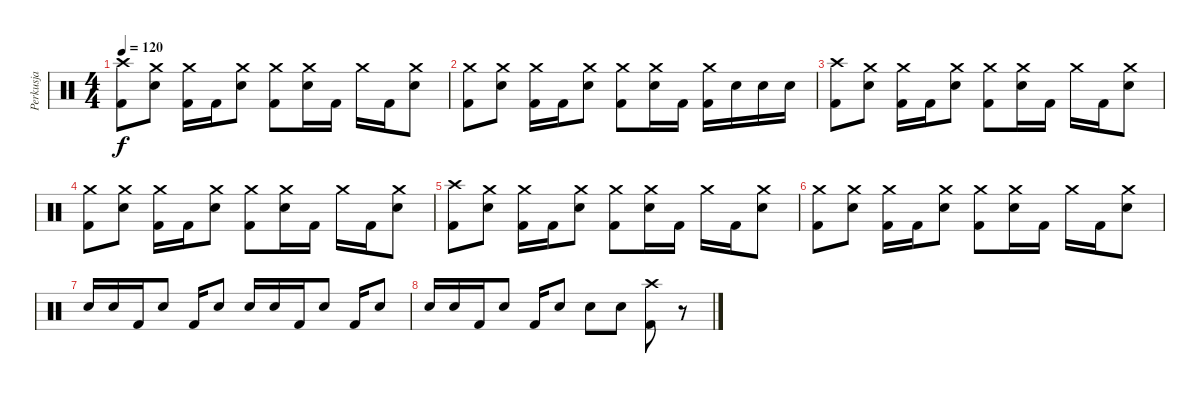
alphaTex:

\track ("Perkusja" "Perkusja") {instrument percussion}
\staff {score}
\articulation defaults
\ts (4 4)
\tempo 120
\clef neutral
\ks c
("Crash high (hit)" "Kick (hit) 2").8{dy f} ("Crash medium (hit)" "Snare (hit) 2").8 ("Crash medium (hit)" "Kick (hit) 2").16 "Kick (hit) 2".16 ("Crash medium (hit)" "Snare (hit) 2").8 ("Crash medium (hit)" "Kick (hit) 2").8 ("Crash medium (hit)" "Snare (hit) 2").16 "Kick (hit) 2".16 "Crash medium (hit)".16 "Kick (hit) 2".16 ("Crash medium (hit)" "Snare (hit) 2").8 |
("Crash medium (hit)" "Kick (hit) 2").8 ("Crash medium (hit)" "Snare (hit) 2").8 ("Crash medium (hit)" "Kick (hit) 2").16 "Kick (hit) 2".16 ("Crash medium (hit)" "Snare (hit) 2").8 ("Crash medium (hit)" "Kick (hit) 2").8 ("Crash medium (hit)" "Snare (hit) 2").16 "Kick (hit) 2".16 ("Crash medium (hit)" "Kick (hit) 2").16 "Snare (hit) 2".16 "Snare (hit) 2".16 "Snare (hit) 2".16 |
("Crash high (hit)" "Kick (hit) 2").8 ("Crash medium (hit)" "Snare (hit) 2").8 ("Crash medium (hit)" "Kick (hit) 2").16 "Kick (hit) 2".16 ("Crash medium (hit)" "Snare (hit) 2").8 ("Crash medium (hit)" "Kick (hit) 2").8 ("Crash medium (hit)" "Snare (hit) 2").16 "Kick (hit) 2".16 "Crash medium (hit)".16 "Kick (hit) 2".16 ("Crash medium (hit)" "Snare (hit) 2").8 |
("Crash medium (hit)" "Kick (hit) 2").8 ("Crash medium (hit)" "Snare (hit) 2").8 ("Crash medium (hit)" "Kick (hit) 2").16 "Kick (hit) 2".16 ("Crash medium (hit)" "Snare (hit) 2").8 ("Crash medium (hit)" "Kick (hit) 2").8 ("Crash medium (hit)" "Snare (hit) 2").16 "Kick (hit) 2".16 "Crash medium (hit)".16 "Kick (hit) 2".16 ("Crash medium (hit)" "Snare (hit) 2").8 |
("Crash high (hit)" "Kick (hit) 2").8 ("Crash medium (hit)" "Snare (hit) 2").8 ("Crash medium (hit)" "Kick (hit) 2").16 "Kick (hit) 2".16 ("Crash medium (hit)" "Snare (hit) 2").8 ("Crash medium (hit)" "Kick (hit) 2").8 ("Crash medium (hit)" "Snare (hit) 2").16 "Kick (hit) 2".16 "Crash medium (hit)".16 "Kick (hit) 2".16 ("Crash medium (hit)" "Snare (hit) 2").8 |
("Crash medium (hit)" "Kick (hit) 2").8 ("Crash medium (hit)" "Snare (hit) 2").8 ("Crash medium (hit)" "Kick (hit) 2").16 "Kick (hit) 2".16 ("Crash medium (hit)" "Snare (hit) 2").8 ("Crash medium (hit)" "Kick (hit) 2").8 ("Crash medium (hit)" "Snare (hit) 2").16 "Kick (hit) 2".16 "Crash medium (hit)".16 "Kick (hit) 2".16 ("Crash medium (hit)" "Snare (hit) 2").8 |
"Snare (hit) 2".16 "Snare (hit) 2".16 "Kick (hit) 2".16 "Snare (hit) 2".8 "Kick (hit) 2".16 "Snare (hit) 2".8 "Snare (hit) 2".16 "Snare (hit) 2".16 "Kick (hit) 2".16 "Snare (hit) 2".8 "Kick (hit) 2".16 "Snare (hit) 2".8 |
"Snare (hit) 2".16 "Snare (hit) 2".16 "Kick (hit) 2".16 "Snare (hit) 2".8 "Kick (hit) 2".16 "Snare (hit) 2".8 "Snare (hit) 2".8 "Snare (hit) 2".8 ("Crash high (hit)" "Kick (hit) 2").8 r.8
